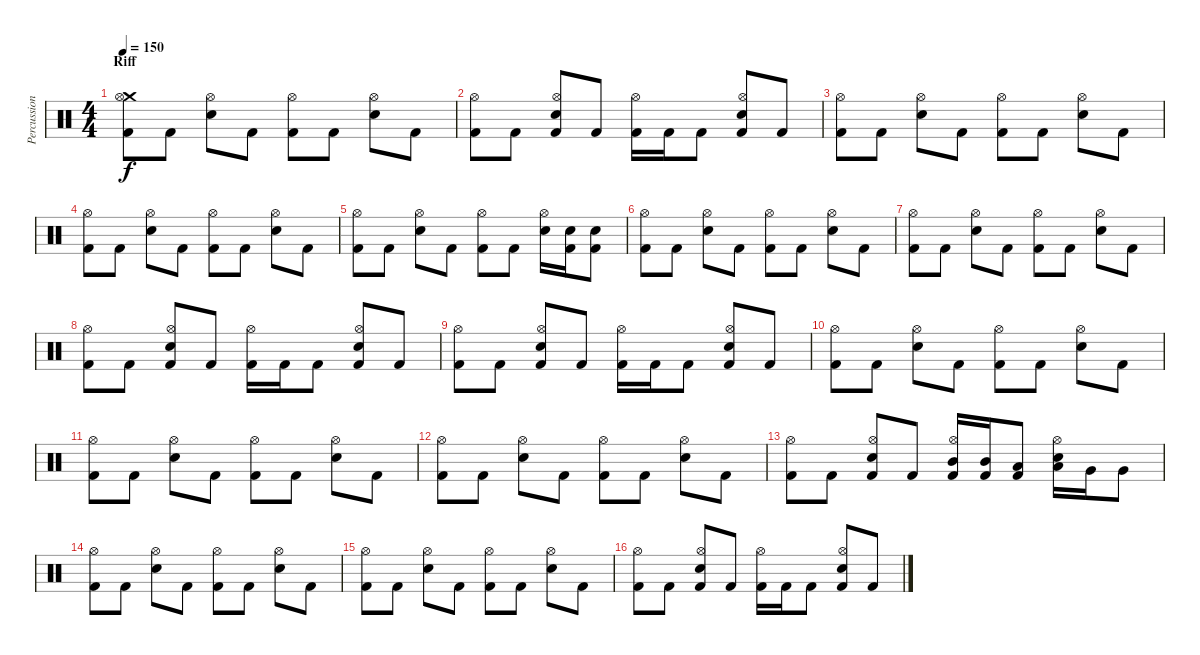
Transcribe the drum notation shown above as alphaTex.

\track ("Percussion" "Percussion") {instrument percussion}
\staff {score}
\articulation defaults
\ts (4 4)
\section ("" "Riff")
\tempo 150
\clef neutral
\ks c
("Kick (hit) 2" "Crash medium (hit)" "Hi-Hat (open)").8{dy f} "Kick (hit) 2".8 ("Electric Snare (hit)" "Hi-Hat (open)").8 "Kick (hit) 2".8 ("Kick (hit) 2" "Hi-Hat (open)").8 "Kick (hit) 2".8 ("Electric Snare (hit)" "Hi-Hat (open)").8 "Kick (hit) 2".8 |
("Kick (hit) 2" "Hi-Hat (open)").8 "Kick (hit) 2".8 ("Electric Snare (hit)" "Kick (hit) 2" "Hi-Hat (open)").8 "Kick (hit) 2".8 ("Kick (hit) 2" "Hi-Hat (open)").16 "Kick (hit) 2".16 "Kick (hit) 2".8 ("Electric Snare (hit)" "Kick (hit) 2" "Hi-Hat (open)").8 "Kick (hit) 2".8 |
("Kick (hit) 2" "Hi-Hat (open)").8 "Kick (hit) 2".8 ("Electric Snare (hit)" "Hi-Hat (open)").8 "Kick (hit) 2".8 ("Kick (hit) 2" "Hi-Hat (open)").8 "Kick (hit) 2".8 ("Electric Snare (hit)" "Hi-Hat (open)").8 "Kick (hit) 2".8 |
("Kick (hit) 2" "Hi-Hat (open)").8 "Kick (hit) 2".8 ("Electric Snare (hit)" "Hi-Hat (open)").8 "Kick (hit) 2".8 ("Kick (hit) 2" "Hi-Hat (open)").8 "Kick (hit) 2".8 ("Electric Snare (hit)" "Hi-Hat (open)").8 "Kick (hit) 2".8 |
("Kick (hit) 2" "Hi-Hat (open)").8 "Kick (hit) 2".8 ("Electric Snare (hit)" "Hi-Hat (open)").8 "Kick (hit) 2".8 ("Kick (hit) 2" "Hi-Hat (open)").8 "Kick (hit) 2".8 ("Electric Snare (hit)" "Hi-Hat (open)").16 ("Kick (hit) 2" "Electric Snare (hit)").16 ("Kick (hit) 2" "Electric Snare (hit)").8 |
("Kick (hit) 2" "Hi-Hat (open)").8 "Kick (hit) 2".8 ("Electric Snare (hit)" "Hi-Hat (open)").8 "Kick (hit) 2".8 ("Kick (hit) 2" "Hi-Hat (open)").8 "Kick (hit) 2".8 ("Electric Snare (hit)" "Hi-Hat (open)").8 "Kick (hit) 2".8 |
("Kick (hit) 2" "Hi-Hat (open)").8 "Kick (hit) 2".8 ("Electric Snare (hit)" "Hi-Hat (open)").8 "Kick (hit) 2".8 ("Kick (hit) 2" "Hi-Hat (open)").8 "Kick (hit) 2".8 ("Electric Snare (hit)" "Hi-Hat (open)").8 "Kick (hit) 2".8 |
("Kick (hit) 2" "Hi-Hat (open)").8 "Kick (hit) 2".8 ("Electric Snare (hit)" "Kick (hit) 2" "Hi-Hat (open)").8 "Kick (hit) 2".8 ("Kick (hit) 2" "Hi-Hat (open)").16 "Kick (hit) 2".16 "Kick (hit) 2".8 ("Electric Snare (hit)" "Kick (hit) 2" "Hi-Hat (open)").8 "Kick (hit) 2".8 |
("Kick (hit) 2" "Hi-Hat (open)").8 "Kick (hit) 2".8 ("Electric Snare (hit)" "Kick (hit) 2" "Hi-Hat (open)").8 "Kick (hit) 2".8 ("Kick (hit) 2" "Hi-Hat (open)").16 "Kick (hit) 2".16 "Kick (hit) 2".8 ("Electric Snare (hit)" "Kick (hit) 2" "Hi-Hat (open)").8 "Kick (hit) 2".8 |
("Kick (hit) 2" "Hi-Hat (open)").8 "Kick (hit) 2".8 ("Electric Snare (hit)" "Hi-Hat (open)").8 "Kick (hit) 2".8 ("Kick (hit) 2" "Hi-Hat (open)").8 "Kick (hit) 2".8 ("Electric Snare (hit)" "Hi-Hat (open)").8 "Kick (hit) 2".8 |
("Kick (hit) 2" "Hi-Hat (open)").8 "Kick (hit) 2".8 ("Electric Snare (hit)" "Hi-Hat (open)").8 "Kick (hit) 2".8 ("Kick (hit) 2" "Hi-Hat (open)").8 "Kick (hit) 2".8 ("Electric Snare (hit)" "Hi-Hat (open)").8 "Kick (hit) 2".8 |
("Kick (hit) 2" "Hi-Hat (open)").8 "Kick (hit) 2".8 ("Electric Snare (hit)" "Hi-Hat (open)").8 "Kick (hit) 2".8 ("Kick (hit) 2" "Hi-Hat (open)").8 "Kick (hit) 2".8 ("Electric Snare (hit)" "Hi-Hat (open)").8 "Kick (hit) 2".8 |
("Kick (hit) 2" "Hi-Hat (open)").8 "Kick (hit) 2".8 ("Electric Snare (hit)" "Kick (hit) 2" "Hi-Hat (open)").8 "Kick (hit) 2".8 ("Kick (hit) 2" "Mid Tom (hit)" "Hi-Hat (open)").16 ("Kick (hit) 2" "Mid Tom (hit)").16 ("Kick (hit) 2" "Low Tom (hit)").8 ("Electric Snare (hit)" "Low Tom (hit)" "Hi-Hat (open)").16 "Very Low Tom (hit)".16 "Very Low Tom (hit)".8 |
("Kick (hit) 2" "Hi-Hat (open)").8 "Kick (hit) 2".8 ("Electric Snare (hit)" "Hi-Hat (open)").8 "Kick (hit) 2".8 ("Kick (hit) 2" "Hi-Hat (open)").8 "Kick (hit) 2".8 ("Electric Snare (hit)" "Hi-Hat (open)").8 "Kick (hit) 2".8 |
("Kick (hit) 2" "Hi-Hat (open)").8 "Kick (hit) 2".8 ("Electric Snare (hit)" "Hi-Hat (open)").8 "Kick (hit) 2".8 ("Kick (hit) 2" "Hi-Hat (open)").8 "Kick (hit) 2".8 ("Electric Snare (hit)" "Hi-Hat (open)").8 "Kick (hit) 2".8 |
("Kick (hit) 2" "Hi-Hat (open)").8 "Kick (hit) 2".8 ("Electric Snare (hit)" "Kick (hit) 2" "Hi-Hat (open)").8 "Kick (hit) 2".8 ("Kick (hit) 2" "Hi-Hat (open)").16 "Kick (hit) 2".16 "Kick (hit) 2".8 ("Electric Snare (hit)" "Kick (hit) 2" "Hi-Hat (open)").8 "Kick (hit) 2".8
